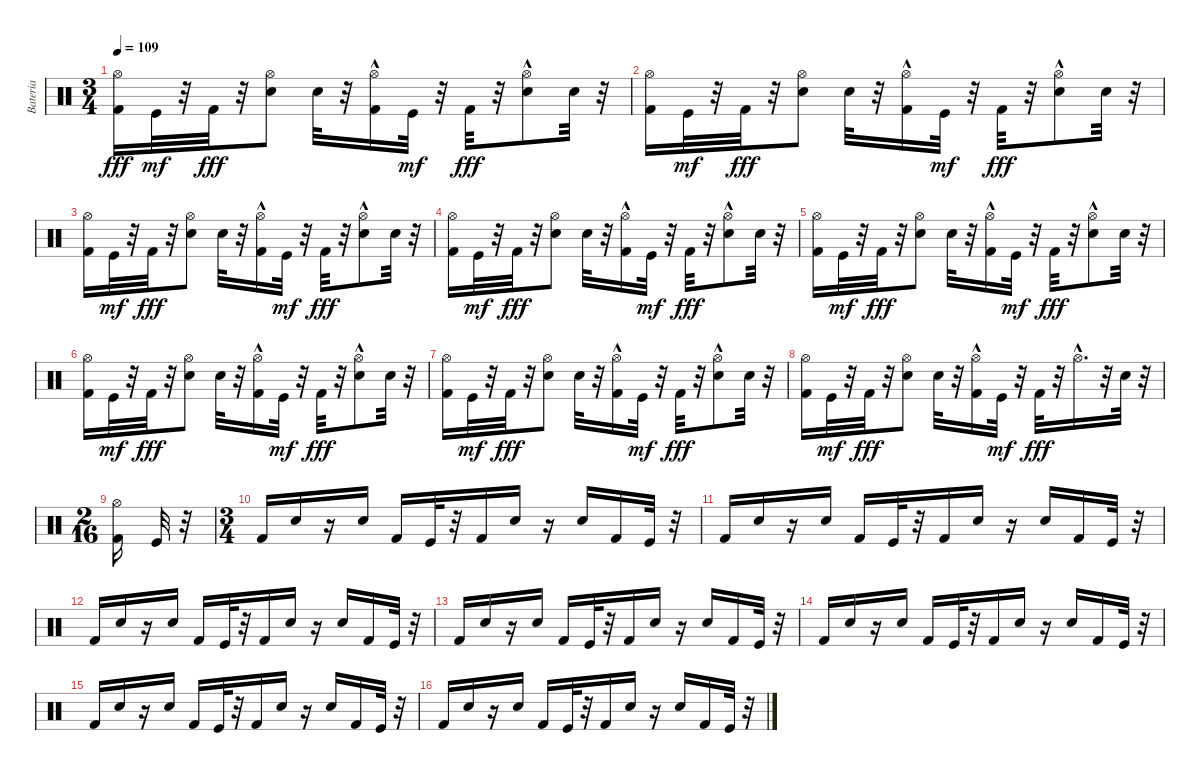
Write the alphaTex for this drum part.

\track ("Bateria" "Bateria") {instrument percussion}
\staff {score}
\articulation defaults
\ts (3 4)
\tempo 109
\clef neutral
\ks c
("Kick (hit) 2" "Hi-Hat (open)").16{dy fff} "Kick (hit)".32{dy mf} r.32 "Kick (hit) 2".32{dy fff} r.32 ("Electric Snare (hit)" "Hi-Hat (open)").8 "Electric Snare (hit)".32 r.32 ("Kick (hit) 2" "Hi-Hat (open)"{hac}).16 "Kick (hit)".32{dy mf} r.32 "Kick (hit) 2".32{dy fff} r.32 ("Electric Snare (hit)" "Hi-Hat (open)"{hac}).8 "Electric Snare (hit)".32 r.32 |
("Kick (hit) 2" "Hi-Hat (open)").16 "Kick (hit)".32{dy mf} r.32 "Kick (hit) 2".32{dy fff} r.32 ("Electric Snare (hit)" "Hi-Hat (open)").8 "Electric Snare (hit)".32 r.32 ("Kick (hit) 2" "Hi-Hat (open)"{hac}).16 "Kick (hit)".32{dy mf} r.32 "Kick (hit) 2".32{dy fff} r.32 ("Electric Snare (hit)" "Hi-Hat (open)"{hac}).8 "Electric Snare (hit)".32 r.32 |
("Kick (hit) 2" "Hi-Hat (open)").16 "Kick (hit)".32{dy mf} r.32 "Kick (hit) 2".32{dy fff} r.32 ("Electric Snare (hit)" "Hi-Hat (open)").8 "Electric Snare (hit)".32 r.32 ("Kick (hit) 2" "Hi-Hat (open)"{hac}).16 "Kick (hit)".32{dy mf} r.32 "Kick (hit) 2".32{dy fff} r.32 ("Electric Snare (hit)" "Hi-Hat (open)"{hac}).8 "Electric Snare (hit)".32 r.32 |
("Kick (hit) 2" "Hi-Hat (open)").16 "Kick (hit)".32{dy mf} r.32 "Kick (hit) 2".32{dy fff} r.32 ("Electric Snare (hit)" "Hi-Hat (open)").8 "Electric Snare (hit)".32 r.32 ("Kick (hit) 2" "Hi-Hat (open)"{hac}).16 "Kick (hit)".32{dy mf} r.32 "Kick (hit) 2".32{dy fff} r.32 ("Electric Snare (hit)" "Hi-Hat (open)"{hac}).8 "Electric Snare (hit)".32 r.32 |
("Kick (hit) 2" "Hi-Hat (open)").16 "Kick (hit)".32{dy mf} r.32 "Kick (hit) 2".32{dy fff} r.32 ("Electric Snare (hit)" "Hi-Hat (open)").8 "Electric Snare (hit)".32 r.32 ("Kick (hit) 2" "Hi-Hat (open)"{hac}).16 "Kick (hit)".32{dy mf} r.32 "Kick (hit) 2".32{dy fff} r.32 ("Electric Snare (hit)" "Hi-Hat (open)"{hac}).8 "Electric Snare (hit)".32 r.32 |
("Kick (hit) 2" "Hi-Hat (open)").16 "Kick (hit)".32{dy mf} r.32 "Kick (hit) 2".32{dy fff} r.32 ("Electric Snare (hit)" "Hi-Hat (open)").8 "Electric Snare (hit)".32 r.32 ("Kick (hit) 2" "Hi-Hat (open)"{hac}).16 "Kick (hit)".32{dy mf} r.32 "Kick (hit) 2".32{dy fff} r.32 ("Electric Snare (hit)" "Hi-Hat (open)"{hac}).8 "Electric Snare (hit)".32 r.32 |
("Kick (hit) 2" "Hi-Hat (open)").16 "Kick (hit)".32{dy mf} r.32 "Kick (hit) 2".32{dy fff} r.32 ("Electric Snare (hit)" "Hi-Hat (open)").8 "Electric Snare (hit)".32 r.32 ("Kick (hit) 2" "Hi-Hat (open)"{hac}).16 "Kick (hit)".32{dy mf} r.32 "Kick (hit) 2".32{dy fff} r.32 ("Electric Snare (hit)" "Hi-Hat (open)"{hac}).8 "Electric Snare (hit)".32 r.32 |
("Kick (hit) 2" "Hi-Hat (open)").16 "Kick (hit)".32{dy mf} r.32 "Kick (hit) 2".32{dy fff} r.32 ("Electric Snare (hit)" "Hi-Hat (open)").8 "Electric Snare (hit)".32 r.32 ("Kick (hit) 2" "Hi-Hat (open)"{hac}).16 "Kick (hit)".32{dy mf} r.32 "Kick (hit) 2".32{dy fff} r.32 "Hi-Hat (open)"{hac}.16{d} r.32 "Electric Snare (hit)".32 r.32 |
\ts (2 16)
("Hi-Hat (open)" "Kick (hit) 2").16 "Kick (hit)".32 r.32 |
\ts (3 4)
"Kick (hit) 2".16 "Electric Snare (hit)".16 r.16 "Electric Snare (hit)".16 "Kick (hit) 2".16 "Kick (hit)".32 r.32 "Kick (hit) 2".16 "Electric Snare (hit)".16 r.16 "Electric Snare (hit)".16 "Kick (hit) 2".16 "Kick (hit)".32 r.32 |
"Kick (hit) 2".16 "Electric Snare (hit)".16 r.16 "Electric Snare (hit)".16 "Kick (hit) 2".16 "Kick (hit)".32 r.32 "Kick (hit) 2".16 "Electric Snare (hit)".16 r.16 "Electric Snare (hit)".16 "Kick (hit) 2".16 "Kick (hit)".32 r.32 |
"Kick (hit) 2".16 "Electric Snare (hit)".16 r.16 "Electric Snare (hit)".16 "Kick (hit) 2".16 "Kick (hit)".32 r.32 "Kick (hit) 2".16 "Electric Snare (hit)".16 r.16 "Electric Snare (hit)".16 "Kick (hit) 2".16 "Kick (hit)".32 r.32 |
"Kick (hit) 2".16 "Electric Snare (hit)".16 r.16 "Electric Snare (hit)".16 "Kick (hit) 2".16 "Kick (hit)".32 r.32 "Kick (hit) 2".16 "Electric Snare (hit)".16 r.16 "Electric Snare (hit)".16 "Kick (hit) 2".16 "Kick (hit)".32 r.32 |
"Kick (hit) 2".16 "Electric Snare (hit)".16 r.16 "Electric Snare (hit)".16 "Kick (hit) 2".16 "Kick (hit)".32 r.32 "Kick (hit) 2".16 "Electric Snare (hit)".16 r.16 "Electric Snare (hit)".16 "Kick (hit) 2".16 "Kick (hit)".32 r.32 |
"Kick (hit) 2".16 "Electric Snare (hit)".16 r.16 "Electric Snare (hit)".16 "Kick (hit) 2".16 "Kick (hit)".32 r.32 "Kick (hit) 2".16 "Electric Snare (hit)".16 r.16 "Electric Snare (hit)".16 "Kick (hit) 2".16 "Kick (hit)".32 r.32 |
"Kick (hit) 2".16 "Electric Snare (hit)".16 r.16 "Electric Snare (hit)".16 "Kick (hit) 2".16 "Kick (hit)".32 r.32 "Kick (hit) 2".16 "Electric Snare (hit)".16 r.16 "Electric Snare (hit)".16 "Kick (hit) 2".16 "Kick (hit)".32 r.32
